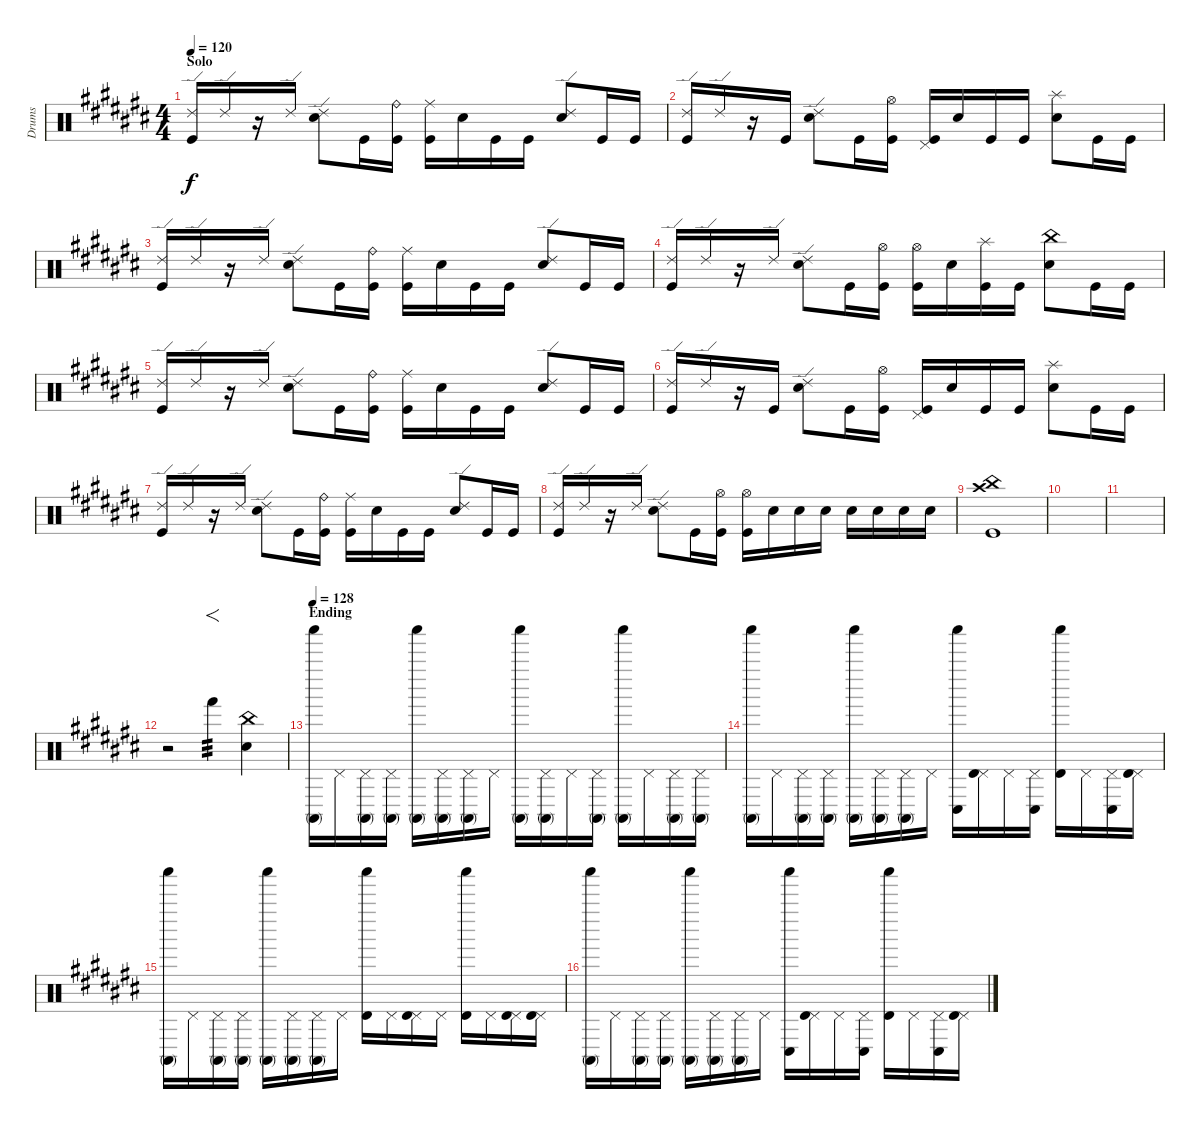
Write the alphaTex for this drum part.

\track ("Drums" "Drums") {instrument percussion}
\staff {score}
\articulation defaults
\ts (4 4)
\section ("" "Solo")
\tempo 120
\clef neutral
\ks c#
("Ride (edge) 2" "Kick (hit)").16{dy f} "Ride (edge) 2".16 r.16 "Ride (edge) 2".16 ("Ride (edge) 2" "Electric Snare (hit)").8 "Kick (hit)".16 ("Ride (bell)" "Kick (hit)").16 ("Ride (middle)" "Kick (hit)").16 "Electric Snare (hit)".16 "Kick (hit)".16 "Kick (hit)".16 ("Ride (edge) 2" "Electric Snare (hit)").8 "Kick (hit)".16 "Kick (hit)".16 |
("Ride (edge) 2" "Kick (hit)").16 "Ride (edge) 2".16 r.16 "Kick (hit)".16 ("Ride (edge) 2" "Electric Snare (hit)").8 "Kick (hit)".16 ("Hi-Hat (open)" "Kick (hit)").16 ("Pedal Hi-Hat (hit)" "Kick (hit)").16 "Electric Snare (hit)".16 "Kick (hit)".16 "Kick (hit)".16 ("Splash (hit)" "Electric Snare (hit)").8 "Kick (hit)".16 "Kick (hit)".16 |
("Ride (edge) 2" "Kick (hit)").16 "Ride (edge) 2".16 r.16 "Ride (edge) 2".16 ("Ride (edge) 2" "Electric Snare (hit)").8 "Kick (hit)".16 ("Ride (bell)" "Kick (hit)").16 ("Ride (middle)" "Kick (hit)").16 "Electric Snare (hit)".16 "Kick (hit)".16 "Kick (hit)".16 ("Ride (edge) 2" "Electric Snare (hit)").8 "Kick (hit)".16 "Kick (hit)".16 |
("Ride (edge) 2" "Kick (hit)").16 "Ride (edge) 2".16 r.16 "Ride (edge) 2".16 ("Ride (edge) 2" "Electric Snare (hit)").8 "Kick (hit)".16 ("Hi-Hat (open)" "Kick (hit)").16 ("Hi-Hat (open)" "Kick (hit)").16 "Electric Snare (hit)".16 ("Splash (hit)" "Kick (hit)").16 "Kick (hit)".16 ("China (hit)" "Electric Snare (hit)").8 "Kick (hit)".16 "Kick (hit)".16 |
("Ride (edge) 2" "Kick (hit)").16 "Ride (edge) 2".16 r.16 "Ride (edge) 2".16 ("Ride (edge) 2" "Electric Snare (hit)").8 "Kick (hit)".16 ("Ride (bell)" "Kick (hit)").16 ("Ride (middle)" "Kick (hit)").16 "Electric Snare (hit)".16 "Kick (hit)".16 "Kick (hit)".16 ("Ride (edge) 2" "Electric Snare (hit)").8 "Kick (hit)".16 "Kick (hit)".16 |
("Ride (edge) 2" "Kick (hit)").16 "Ride (edge) 2".16 r.16 "Kick (hit)".16 ("Ride (edge) 2" "Electric Snare (hit)").8 "Kick (hit)".16 ("Hi-Hat (open)" "Kick (hit)").16 ("Pedal Hi-Hat (hit)" "Kick (hit)").16 "Electric Snare (hit)".16 "Kick (hit)".16 "Kick (hit)".16 ("Splash (hit)" "Electric Snare (hit)").8 "Kick (hit)".16 "Kick (hit)".16 |
("Ride (edge) 2" "Kick (hit)").16 "Ride (edge) 2".16 r.16 "Ride (edge) 2".16 ("Ride (edge) 2" "Electric Snare (hit)").8 "Kick (hit)".16 ("Ride (bell)" "Kick (hit)").16 ("Ride (middle)" "Kick (hit)").16 "Electric Snare (hit)".16 "Kick (hit)".16 "Kick (hit)".16 ("Ride (edge) 2" "Electric Snare (hit)").8 "Kick (hit)".16 "Kick (hit)".16 |
("Ride (edge) 2" "Kick (hit)").16 "Ride (edge) 2".16 r.16 "Ride (edge) 2".16 ("Ride (edge) 2" "Electric Snare (hit)").8 "Kick (hit)".16 ("Hi-Hat (open)" "Kick (hit)").16 ("Hi-Hat (open)" "Kick (hit)").16 "Electric Snare (hit)".16 "Electric Snare (hit)".16 "Electric Snare (hit)".16 "Electric Snare (hit)".16 "Electric Snare (hit)".16 "Electric Snare (hit)".16 "Electric Snare (hit)".16 |
("Crash high (hit)" "China (hit)" "Kick (hit)").1 |
|
|
r.2 "Hand (hit)".4{f tp 3} ("China (hit)" "Electric Snare (hit)").4 |
\section ("" "Ending")
\tempo 128
("Shaker (hit)" "Conga high (mute)").16 "Pedal Hi-Hat (hit)".16 ("Pedal Hi-Hat (hit)" "Conga high (mute)").16 ("Pedal Hi-Hat (hit)" "Conga high (mute)").16 ("Shaker (hit)" "Conga high (mute)").16 ("Pedal Hi-Hat (hit)" "Conga high (mute)").16 ("Pedal Hi-Hat (hit)" "Conga high (mute)").16 "Pedal Hi-Hat (hit)".16 ("Shaker (hit)" "Conga high (mute)").16 ("Pedal Hi-Hat (hit)" "Conga high (mute)").16 "Pedal Hi-Hat (hit)".16 ("Pedal Hi-Hat (hit)" "Conga high (mute)").16 ("Shaker (hit)" "Conga high (mute)").16 "Pedal Hi-Hat (hit)".16 ("Pedal Hi-Hat (hit)" "Conga high (mute)").16 ("Pedal Hi-Hat (hit)" "Conga high (mute)").16 |
("Shaker (hit)" "Conga high (mute)").16 "Pedal Hi-Hat (hit)".16 ("Pedal Hi-Hat (hit)" "Conga high (mute)").16 ("Pedal Hi-Hat (hit)" "Conga high (mute)").16 ("Shaker (hit)" "Conga high (mute)").16 ("Pedal Hi-Hat (hit)" "Conga high (mute)").16 ("Pedal Hi-Hat (hit)" "Conga high (mute)").16 "Pedal Hi-Hat (hit)".16 ("Shaker (hit)" "Conga low (hit)").16 ("Pedal Hi-Hat (hit)" "Timbale high (hit)").16 "Pedal Hi-Hat (hit)".16 ("Pedal Hi-Hat (hit)" "Conga low (hit)").16 ("Shaker (hit)" "Timbale high (hit)").16 "Pedal Hi-Hat (hit)".16 ("Pedal Hi-Hat (hit)" "Conga low (hit)").16 ("Pedal Hi-Hat (hit)" "Timbale high (hit)").16 |
("Shaker (hit)" "Conga high (mute)").16 "Pedal Hi-Hat (hit)".16 ("Pedal Hi-Hat (hit)" "Conga high (mute)").16 ("Pedal Hi-Hat (hit)" "Conga high (mute)").16 ("Shaker (hit)" "Conga high (mute)").16 ("Pedal Hi-Hat (hit)" "Conga high (mute)").16 ("Pedal Hi-Hat (hit)" "Conga high (mute)").16 "Pedal Hi-Hat (hit)".16 ("Shaker (hit)" "Timbale high (hit)").16 "Pedal Hi-Hat (hit)".16 ("Pedal Hi-Hat (hit)" "Timbale high (hit)").16 "Pedal Hi-Hat (hit)".16 ("Shaker (hit)" "Timbale high (hit)").16 "Pedal Hi-Hat (hit)".16 ("Pedal Hi-Hat (hit)" "Timbale high (hit)").16 ("Pedal Hi-Hat (hit)" "Timbale high (hit)").16 |
("Shaker (hit)" "Conga high (mute)").16 "Pedal Hi-Hat (hit)".16 ("Pedal Hi-Hat (hit)" "Conga high (mute)").16 ("Pedal Hi-Hat (hit)" "Conga high (mute)").16 ("Shaker (hit)" "Conga high (mute)").16 ("Pedal Hi-Hat (hit)" "Conga high (mute)").16 ("Pedal Hi-Hat (hit)" "Conga high (mute)").16 "Pedal Hi-Hat (hit)".16 ("Shaker (hit)" "Conga low (hit)").16 ("Pedal Hi-Hat (hit)" "Timbale high (hit)").16 "Pedal Hi-Hat (hit)".16 ("Pedal Hi-Hat (hit)" "Conga low (hit)").16 ("Shaker (hit)" "Timbale high (hit)").16 "Pedal Hi-Hat (hit)".16 ("Pedal Hi-Hat (hit)" "Conga low (hit)").16 ("Pedal Hi-Hat (hit)" "Timbale high (hit)").16
